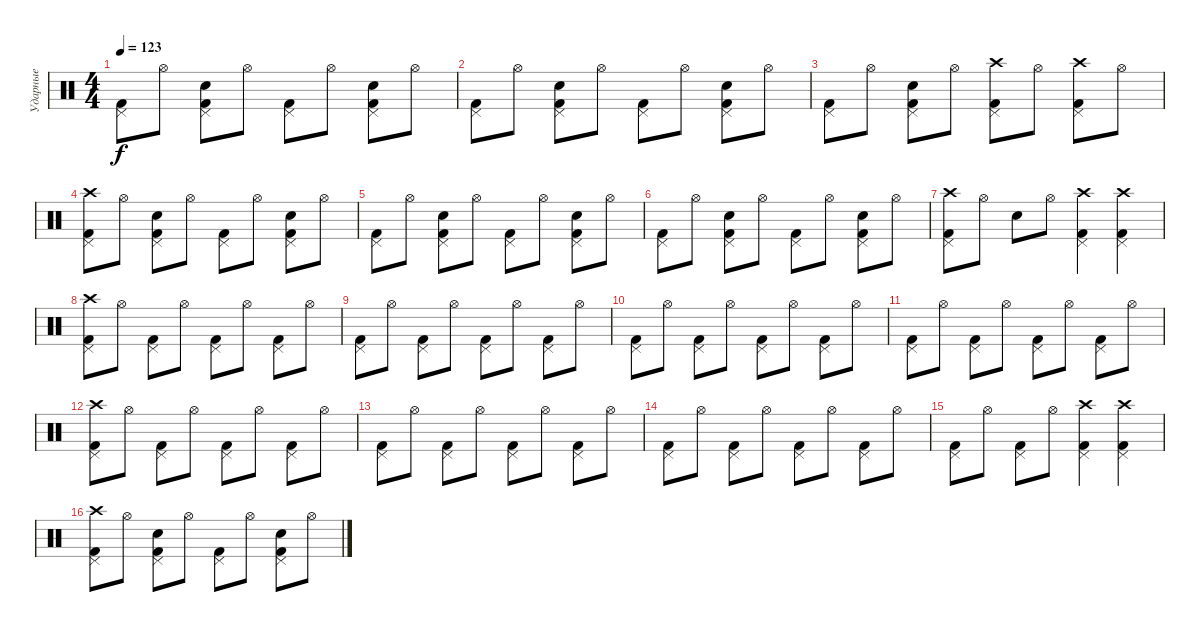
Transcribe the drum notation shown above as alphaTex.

\track ("Ударные" "Ударные") {instrument percussion}
\staff {score}
\articulation defaults
\ts (4 4)
\tempo 123
\clef neutral
\ks c
("Kick (hit) 2" "Pedal Hi-Hat (hit)").8{dy f} "Hi-Hat (open)".8 ("Kick (hit) 2" "Pedal Hi-Hat (hit)" "Hand Clap (hit)").8 "Hi-Hat (open)".8 ("Kick (hit) 2" "Pedal Hi-Hat (hit)").8 "Hi-Hat (open)".8 ("Kick (hit) 2" "Pedal Hi-Hat (hit)" "Hand Clap (hit)").8 "Hi-Hat (open)".8 |
("Kick (hit) 2" "Pedal Hi-Hat (hit)").8 "Hi-Hat (open)".8 ("Kick (hit) 2" "Pedal Hi-Hat (hit)" "Hand Clap (hit)").8 "Hi-Hat (open)".8 ("Kick (hit) 2" "Pedal Hi-Hat (hit)").8 "Hi-Hat (open)".8 ("Kick (hit) 2" "Pedal Hi-Hat (hit)" "Hand Clap (hit)").8 "Hi-Hat (open)".8 |
("Kick (hit) 2" "Pedal Hi-Hat (hit)").8 "Hi-Hat (open)".8 ("Kick (hit) 2" "Pedal Hi-Hat (hit)" "Hand Clap (hit)").8 "Hi-Hat (open)".8 ("Kick (hit) 2" "Pedal Hi-Hat (hit)" "Crash high (hit)").8 "Hi-Hat (open)".8 ("Kick (hit) 2" "Pedal Hi-Hat (hit)" "Crash high (hit)").8 "Hi-Hat (open)".8 |
("Kick (hit) 2" "Pedal Hi-Hat (hit)" "Crash high (hit)").8 "Hi-Hat (open)".8 ("Kick (hit) 2" "Pedal Hi-Hat (hit)" "Hand Clap (hit)").8 "Hi-Hat (open)".8 ("Kick (hit) 2" "Pedal Hi-Hat (hit)").8 "Hi-Hat (open)".8 ("Kick (hit) 2" "Pedal Hi-Hat (hit)" "Hand Clap (hit)").8 "Hi-Hat (open)".8 |
("Kick (hit) 2" "Pedal Hi-Hat (hit)").8 "Hi-Hat (open)".8 ("Kick (hit) 2" "Pedal Hi-Hat (hit)" "Hand Clap (hit)").8 "Hi-Hat (open)".8 ("Kick (hit) 2" "Pedal Hi-Hat (hit)").8 "Hi-Hat (open)".8 ("Kick (hit) 2" "Pedal Hi-Hat (hit)" "Hand Clap (hit)").8 "Hi-Hat (open)".8 |
("Kick (hit) 2" "Pedal Hi-Hat (hit)").8 "Hi-Hat (open)".8 ("Kick (hit) 2" "Pedal Hi-Hat (hit)" "Hand Clap (hit)").8 "Hi-Hat (open)".8 ("Kick (hit) 2" "Pedal Hi-Hat (hit)").8 "Hi-Hat (open)".8 ("Kick (hit) 2" "Pedal Hi-Hat (hit)" "Hand Clap (hit)").8 "Hi-Hat (open)".8 |
("Kick (hit) 2" "Pedal Hi-Hat (hit)" "Crash high (hit)").8 "Hi-Hat (open)".8 "Hand Clap (hit)".8 "Hi-Hat (open)".8 ("Kick (hit) 2" "Pedal Hi-Hat (hit)" "Crash high (hit)").4 ("Kick (hit) 2" "Pedal Hi-Hat (hit)" "Crash high (hit)").4 |
("Kick (hit) 2" "Pedal Hi-Hat (hit)" "Crash high (hit)").8 "Hi-Hat (open)".8 ("Kick (hit) 2" "Pedal Hi-Hat (hit)").8 "Hi-Hat (open)".8 ("Kick (hit) 2" "Pedal Hi-Hat (hit)").8 "Hi-Hat (open)".8 ("Kick (hit) 2" "Pedal Hi-Hat (hit)").8 "Hi-Hat (open)".8 |
("Kick (hit) 2" "Pedal Hi-Hat (hit)").8 "Hi-Hat (open)".8 ("Kick (hit) 2" "Pedal Hi-Hat (hit)").8 "Hi-Hat (open)".8 ("Kick (hit) 2" "Pedal Hi-Hat (hit)").8 "Hi-Hat (open)".8 ("Kick (hit) 2" "Pedal Hi-Hat (hit)").8 "Hi-Hat (open)".8 |
("Kick (hit) 2" "Pedal Hi-Hat (hit)").8 "Hi-Hat (open)".8 ("Kick (hit) 2" "Pedal Hi-Hat (hit)").8 "Hi-Hat (open)".8 ("Kick (hit) 2" "Pedal Hi-Hat (hit)").8 "Hi-Hat (open)".8 ("Kick (hit) 2" "Pedal Hi-Hat (hit)").8 "Hi-Hat (open)".8 |
("Kick (hit) 2" "Pedal Hi-Hat (hit)").8 "Hi-Hat (open)".8 ("Kick (hit) 2" "Pedal Hi-Hat (hit)").8 "Hi-Hat (open)".8 ("Kick (hit) 2" "Pedal Hi-Hat (hit)").8 "Hi-Hat (open)".8 ("Kick (hit) 2" "Pedal Hi-Hat (hit)").8 "Hi-Hat (open)".8 |
("Kick (hit) 2" "Pedal Hi-Hat (hit)" "Crash high (hit)").8 "Hi-Hat (open)".8 ("Kick (hit) 2" "Pedal Hi-Hat (hit)").8 "Hi-Hat (open)".8 ("Kick (hit) 2" "Pedal Hi-Hat (hit)").8 "Hi-Hat (open)".8 ("Kick (hit) 2" "Pedal Hi-Hat (hit)").8 "Hi-Hat (open)".8 |
("Kick (hit) 2" "Pedal Hi-Hat (hit)").8 "Hi-Hat (open)".8 ("Kick (hit) 2" "Pedal Hi-Hat (hit)").8 "Hi-Hat (open)".8 ("Kick (hit) 2" "Pedal Hi-Hat (hit)").8 "Hi-Hat (open)".8 ("Kick (hit) 2" "Pedal Hi-Hat (hit)").8 "Hi-Hat (open)".8 |
("Kick (hit) 2" "Pedal Hi-Hat (hit)").8 "Hi-Hat (open)".8 ("Kick (hit) 2" "Pedal Hi-Hat (hit)").8 "Hi-Hat (open)".8 ("Kick (hit) 2" "Pedal Hi-Hat (hit)").8 "Hi-Hat (open)".8 ("Kick (hit) 2" "Pedal Hi-Hat (hit)").8 "Hi-Hat (open)".8 |
("Kick (hit) 2" "Pedal Hi-Hat (hit)").8 "Hi-Hat (open)".8 ("Kick (hit) 2" "Pedal Hi-Hat (hit)").8 "Hi-Hat (open)".8 ("Kick (hit) 2" "Pedal Hi-Hat (hit)" "Crash high (hit)").4 ("Kick (hit) 2" "Pedal Hi-Hat (hit)" "Crash high (hit)").4 |
("Kick (hit) 2" "Pedal Hi-Hat (hit)" "Crash high (hit)").8 "Hi-Hat (open)".8 ("Kick (hit) 2" "Pedal Hi-Hat (hit)" "Hand Clap (hit)").8 "Hi-Hat (open)".8 ("Kick (hit) 2" "Pedal Hi-Hat (hit)").8 "Hi-Hat (open)".8 ("Kick (hit) 2" "Pedal Hi-Hat (hit)" "Hand Clap (hit)").8 "Hi-Hat (open)".8
